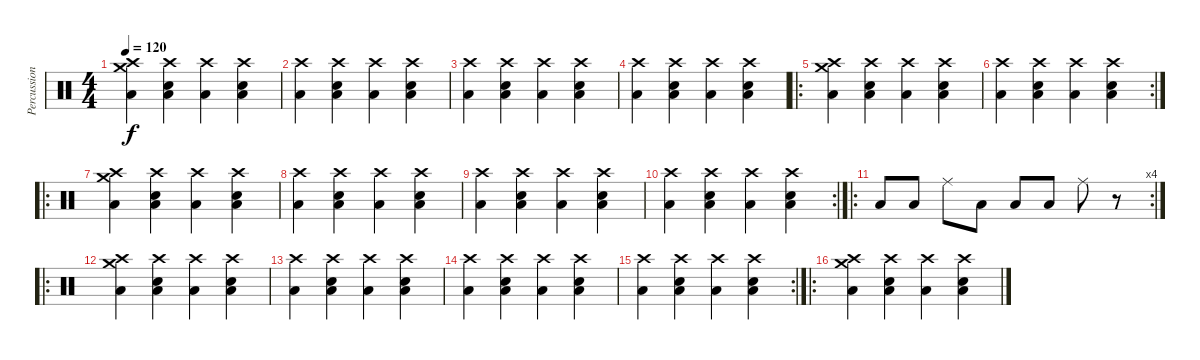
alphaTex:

\track ("Percussions" "Percussion") {instrument percussion}
\staff {score}
\articulation defaults
\ts (4 4)
\tempo 120
\clef neutral
\ks c
("Low Floor Tom (hit)" "Crash high (hit)" "Crash medium (hit)").4{dy f} ("Low Floor Tom (hit)" "Electric Snare (hit)" "Crash high (hit)").4 ("Low Floor Tom (hit)" "Crash high (hit)").4 ("Low Floor Tom (hit)" "Electric Snare (hit)" "Crash high (hit)").4 |
("Low Floor Tom (hit)" "Crash high (hit)").4 ("Low Floor Tom (hit)" "Electric Snare (hit)" "Crash high (hit)").4 ("Low Floor Tom (hit)" "Crash high (hit)").4 ("Low Floor Tom (hit)" "Electric Snare (hit)" "Crash high (hit)").4 |
("Low Floor Tom (hit)" "Crash high (hit)").4 ("Low Floor Tom (hit)" "Electric Snare (hit)" "Crash high (hit)").4 ("Low Floor Tom (hit)" "Crash high (hit)").4 ("Low Floor Tom (hit)" "Electric Snare (hit)" "Crash high (hit)").4 |
("Low Floor Tom (hit)" "Crash high (hit)").4 ("Low Floor Tom (hit)" "Electric Snare (hit)" "Crash high (hit)").4 ("Low Floor Tom (hit)" "Crash high (hit)").4 ("Low Floor Tom (hit)" "Electric Snare (hit)" "Crash high (hit)").4 |
\ro
("Low Floor Tom (hit)" "Crash high (hit)" "Crash medium (hit)").4 ("Low Floor Tom (hit)" "Electric Snare (hit)" "Crash high (hit)").4 ("Low Floor Tom (hit)" "Crash high (hit)").4 ("Low Floor Tom (hit)" "Electric Snare (hit)" "Crash high (hit)").4 |
\rc 2
("Low Floor Tom (hit)" "Crash high (hit)").4 ("Low Floor Tom (hit)" "Electric Snare (hit)" "Crash high (hit)").4 ("Low Floor Tom (hit)" "Crash high (hit)").4 ("Low Floor Tom (hit)" "Electric Snare (hit)" "Crash high (hit)").4 |
\ro
("Low Floor Tom (hit)" "Crash high (hit)" "Crash medium (hit)").4 ("Low Floor Tom (hit)" "Electric Snare (hit)" "Crash high (hit)").4 ("Low Floor Tom (hit)" "Crash high (hit)").4 ("Low Floor Tom (hit)" "Electric Snare (hit)" "Crash high (hit)").4 |
("Low Floor Tom (hit)" "Crash high (hit)").4 ("Low Floor Tom (hit)" "Electric Snare (hit)" "Crash high (hit)").4 ("Low Floor Tom (hit)" "Crash high (hit)").4 ("Low Floor Tom (hit)" "Electric Snare (hit)" "Crash high (hit)").4 |
("Low Floor Tom (hit)" "Crash high (hit)").4 ("Low Floor Tom (hit)" "Electric Snare (hit)" "Crash high (hit)").4 ("Low Floor Tom (hit)" "Crash high (hit)").4 ("Low Floor Tom (hit)" "Electric Snare (hit)" "Crash high (hit)").4 |
\rc 2
("Low Floor Tom (hit)" "Crash high (hit)").4 ("Low Floor Tom (hit)" "Electric Snare (hit)" "Crash high (hit)").4 ("Low Floor Tom (hit)" "Crash high (hit)").4 ("Low Floor Tom (hit)" "Electric Snare (hit)" "Crash high (hit)").4 |
\ro
\rc 4 "Low Floor Tom (hit)".8 "Low Floor Tom (hit)".8 "Ride (middle)".8 "Low Tom (hit)".8 "Low Floor Tom (hit)".8 "Low Floor Tom (hit)".8 "Ride (middle)".8
r.8 |
\ro
("Low Floor Tom (hit)" "Crash high (hit)" "Crash medium (hit)").4 ("Low Floor Tom (hit)" "Electric Snare (hit)" "Crash high (hit)").4 ("Low Floor Tom (hit)" "Crash high (hit)").4 ("Low Floor Tom (hit)" "Electric Snare (hit)" "Crash high (hit)").4 |
("Low Floor Tom (hit)" "Crash high (hit)").4 ("Low Floor Tom (hit)" "Electric Snare (hit)" "Crash high (hit)").4 ("Low Floor Tom (hit)" "Crash high (hit)").4 ("Low Floor Tom (hit)" "Electric Snare (hit)" "Crash high (hit)").4 |
("Low Floor Tom (hit)" "Crash high (hit)").4 ("Low Floor Tom (hit)" "Electric Snare (hit)" "Crash high (hit)").4 ("Low Floor Tom (hit)" "Crash high (hit)").4 ("Low Floor Tom (hit)" "Electric Snare (hit)" "Crash high (hit)").4 |
\rc 2
("Low Floor Tom (hit)" "Crash high (hit)").4 ("Low Floor Tom (hit)" "Electric Snare (hit)" "Crash high (hit)").4 ("Low Floor Tom (hit)" "Crash high (hit)").4 ("Low Floor Tom (hit)" "Electric Snare (hit)" "Crash high (hit)").4 |
\ro
("Low Floor Tom (hit)" "Crash high (hit)" "Crash medium (hit)").4 ("Low Floor Tom (hit)" "Electric Snare (hit)" "Crash high (hit)").4 ("Low Floor Tom (hit)" "Crash high (hit)").4 ("Low Floor Tom (hit)" "Electric Snare (hit)" "Crash high (hit)").4
